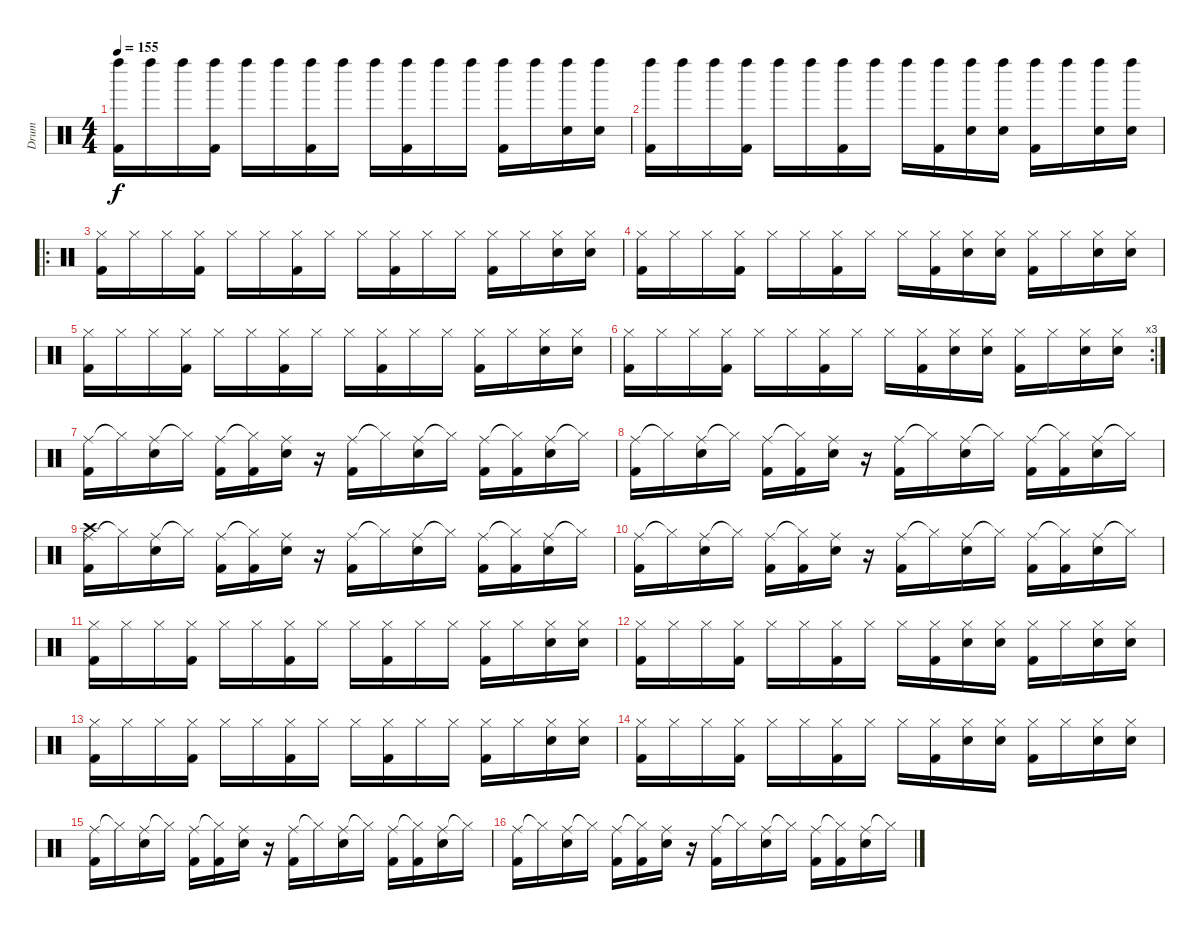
\track ("Drum" "Drum") {instrument percussion}
\staff {score}
\articulation defaults
\ts (4 4)
\tempo 155
\clef neutral
\ks c
("Left Maraca (hit)" "Kick (hit) 2").16{dy f} "Left Maraca (hit)".16 "Left Maraca (hit)".16 ("Left Maraca (hit)" "Kick (hit) 2").16 "Left Maraca (hit)".16 "Left Maraca (hit)".16 ("Left Maraca (hit)" "Kick (hit) 2").16 "Left Maraca (hit)".16 "Left Maraca (hit)".16 ("Left Maraca (hit)" "Kick (hit) 2").16 "Left Maraca (hit)".16 "Left Maraca (hit)".16 ("Left Maraca (hit)" "Kick (hit) 2").16 "Left Maraca (hit)".16 ("Left Maraca (hit)" "Snare (hit) 2").16 ("Left Maraca (hit)" "Snare (hit) 2").16 |
("Left Maraca (hit)" "Kick (hit) 2").16 "Left Maraca (hit)".16 "Left Maraca (hit)".16 ("Left Maraca (hit)" "Kick (hit) 2").16 "Left Maraca (hit)".16 "Left Maraca (hit)".16 ("Left Maraca (hit)" "Kick (hit) 2").16 "Left Maraca (hit)".16 "Left Maraca (hit)".16 ("Left Maraca (hit)" "Kick (hit) 2").16 ("Left Maraca (hit)" "Snare (hit) 2").16 ("Left Maraca (hit)" "Snare (hit) 2").16 ("Left Maraca (hit)" "Kick (hit) 2").16 "Left Maraca (hit)".16 ("Left Maraca (hit)" "Snare (hit) 2").16 ("Left Maraca (hit)" "Snare (hit) 2").16 |
\ro
("Hi-Hat (closed)" "Kick (hit) 2").16 "Hi-Hat (closed)".16 "Hi-Hat (closed)".16 ("Hi-Hat (closed)" "Kick (hit) 2").16 "Hi-Hat (closed)".16 "Hi-Hat (closed)".16 ("Hi-Hat (closed)" "Kick (hit) 2").16 "Hi-Hat (closed)".16 "Hi-Hat (closed)".16 ("Hi-Hat (closed)" "Kick (hit) 2").16 "Hi-Hat (closed)".16 "Hi-Hat (closed)".16 ("Hi-Hat (closed)" "Kick (hit) 2").16 "Hi-Hat (closed)".16 ("Hi-Hat (closed)" "Snare (hit) 2").16 ("Hi-Hat (closed)" "Snare (hit) 2").16 |
("Hi-Hat (closed)" "Kick (hit) 2").16 "Hi-Hat (closed)".16 "Hi-Hat (closed)".16 ("Hi-Hat (closed)" "Kick (hit) 2").16 "Hi-Hat (closed)".16 "Hi-Hat (closed)".16 ("Hi-Hat (closed)" "Kick (hit) 2").16 "Hi-Hat (closed)".16 "Hi-Hat (closed)".16 ("Hi-Hat (closed)" "Kick (hit) 2").16 ("Hi-Hat (closed)" "Snare (hit) 2").16 ("Hi-Hat (closed)" "Snare (hit) 2").16 ("Hi-Hat (closed)" "Kick (hit) 2").16 "Hi-Hat (closed)".16 ("Hi-Hat (closed)" "Snare (hit) 2").16 ("Hi-Hat (closed)" "Snare (hit) 2").16 |
("Hi-Hat (closed)" "Kick (hit) 2").16 "Hi-Hat (closed)".16 "Hi-Hat (closed)".16 ("Hi-Hat (closed)" "Kick (hit) 2").16 "Hi-Hat (closed)".16 "Hi-Hat (closed)".16 ("Hi-Hat (closed)" "Kick (hit) 2").16 "Hi-Hat (closed)".16 "Hi-Hat (closed)".16 ("Hi-Hat (closed)" "Kick (hit) 2").16 "Hi-Hat (closed)".16 "Hi-Hat (closed)".16 ("Hi-Hat (closed)" "Kick (hit) 2").16 "Hi-Hat (closed)".16 ("Hi-Hat (closed)" "Snare (hit) 2").16 ("Hi-Hat (closed)" "Snare (hit) 2").16 |
\rc 3
("Hi-Hat (closed)" "Kick (hit) 2").16 "Hi-Hat (closed)".16 "Hi-Hat (closed)".16 ("Hi-Hat (closed)" "Kick (hit) 2").16 "Hi-Hat (closed)".16 "Hi-Hat (closed)".16 ("Hi-Hat (closed)" "Kick (hit) 2").16 "Hi-Hat (closed)".16 "Hi-Hat (closed)".16 ("Hi-Hat (closed)" "Kick (hit) 2").16 ("Hi-Hat (closed)" "Snare (hit) 2").16 ("Hi-Hat (closed)" "Snare (hit) 2").16 ("Hi-Hat (closed)" "Kick (hit) 2").16 "Hi-Hat (closed)".16 ("Hi-Hat (closed)" "Snare (hit) 2").16 ("Hi-Hat (closed)" "Snare (hit) 2").16 |
("Ride (middle)" "Kick (hit) 2").16 "Hi-Hat (closed)"{t}.16 ("Ride (middle)" "Snare (hit) 2").16 "Hi-Hat (closed)"{t}.16 ("Ride (middle)" "Kick (hit) 2").16 ("Hi-Hat (closed)"{t} "Kick (hit) 2").16 ("Ride (middle)" "Snare (hit) 2").16 r.16 ("Ride (middle)" "Kick (hit) 2").16 "Hi-Hat (closed)"{t}.16 ("Ride (middle)" "Snare (hit) 2").16 "Hi-Hat (closed)"{t}.16 ("Ride (middle)" "Kick (hit) 2").16 ("Hi-Hat (closed)"{t} "Kick (hit) 2").16 ("Ride (middle)" "Snare (hit) 2").16 "Hi-Hat (closed)"{t}.16 |
("Ride (middle)" "Kick (hit) 2").16 "Hi-Hat (closed)"{t}.16 ("Ride (middle)" "Snare (hit) 2").16 "Hi-Hat (closed)"{t}.16 ("Ride (middle)" "Kick (hit) 2").16 ("Hi-Hat (closed)"{t} "Kick (hit) 2").16 ("Ride (middle)" "Snare (hit) 2").16 r.16 ("Ride (middle)" "Kick (hit) 2").16 "Hi-Hat (closed)"{t}.16 ("Ride (middle)" "Snare (hit) 2").16 "Hi-Hat (closed)"{t}.16 ("Ride (middle)" "Kick (hit) 2").16 ("Hi-Hat (closed)"{t} "Kick (hit) 2").16 ("Ride (middle)" "Snare (hit) 2").16 "Hi-Hat (closed)"{t}.16 |
("Ride (middle)" "Crash high (hit)" "Kick (hit) 2").16 "Hi-Hat (closed)"{t}.16 ("Ride (middle)" "Snare (hit) 2").16 "Hi-Hat (closed)"{t}.16 ("Ride (middle)" "Kick (hit) 2").16 ("Hi-Hat (closed)"{t} "Kick (hit) 2").16 ("Ride (middle)" "Snare (hit) 2").16 r.16 ("Ride (middle)" "Kick (hit) 2").16 "Hi-Hat (closed)"{t}.16 ("Ride (middle)" "Snare (hit) 2").16 "Hi-Hat (closed)"{t}.16 ("Ride (middle)" "Kick (hit) 2").16 ("Hi-Hat (closed)"{t} "Kick (hit) 2").16 ("Ride (middle)" "Snare (hit) 2").16 "Hi-Hat (closed)"{t}.16 |
("Ride (middle)" "Kick (hit) 2").16 "Hi-Hat (closed)"{t}.16 ("Ride (middle)" "Snare (hit) 2").16 "Hi-Hat (closed)"{t}.16 ("Ride (middle)" "Kick (hit) 2").16 ("Hi-Hat (closed)"{t} "Kick (hit) 2").16 ("Ride (middle)" "Snare (hit) 2").16 r.16 ("Ride (middle)" "Kick (hit) 2").16 "Hi-Hat (closed)"{t}.16 ("Ride (middle)" "Snare (hit) 2").16 "Hi-Hat (closed)"{t}.16 ("Ride (middle)" "Kick (hit) 2").16 ("Hi-Hat (closed)"{t} "Kick (hit) 2").16 ("Ride (middle)" "Snare (hit) 2").16 "Hi-Hat (closed)"{t}.16 |
("Hi-Hat (closed)" "Kick (hit) 2").16 "Hi-Hat (closed)".16 "Hi-Hat (closed)".16 ("Hi-Hat (closed)" "Kick (hit) 2").16 "Hi-Hat (closed)".16 "Hi-Hat (closed)".16 ("Hi-Hat (closed)" "Kick (hit) 2").16 "Hi-Hat (closed)".16 "Hi-Hat (closed)".16 ("Hi-Hat (closed)" "Kick (hit) 2").16 "Hi-Hat (closed)".16 "Hi-Hat (closed)".16 ("Hi-Hat (closed)" "Kick (hit) 2").16 "Hi-Hat (closed)".16 ("Hi-Hat (closed)" "Snare (hit) 2").16 ("Hi-Hat (closed)" "Snare (hit) 2").16 |
("Hi-Hat (closed)" "Kick (hit) 2").16 "Hi-Hat (closed)".16 "Hi-Hat (closed)".16 ("Hi-Hat (closed)" "Kick (hit) 2").16 "Hi-Hat (closed)".16 "Hi-Hat (closed)".16 ("Hi-Hat (closed)" "Kick (hit) 2").16 "Hi-Hat (closed)".16 "Hi-Hat (closed)".16 ("Hi-Hat (closed)" "Kick (hit) 2").16 ("Hi-Hat (closed)" "Snare (hit) 2").16 ("Hi-Hat (closed)" "Snare (hit) 2").16 ("Hi-Hat (closed)" "Kick (hit) 2").16 "Hi-Hat (closed)".16 ("Hi-Hat (closed)" "Snare (hit) 2").16 ("Hi-Hat (closed)" "Snare (hit) 2").16 |
("Hi-Hat (closed)" "Kick (hit) 2").16 "Hi-Hat (closed)".16 "Hi-Hat (closed)".16 ("Hi-Hat (closed)" "Kick (hit) 2").16 "Hi-Hat (closed)".16 "Hi-Hat (closed)".16 ("Hi-Hat (closed)" "Kick (hit) 2").16 "Hi-Hat (closed)".16 "Hi-Hat (closed)".16 ("Hi-Hat (closed)" "Kick (hit) 2").16 "Hi-Hat (closed)".16 "Hi-Hat (closed)".16 ("Hi-Hat (closed)" "Kick (hit) 2").16 "Hi-Hat (closed)".16 ("Hi-Hat (closed)" "Snare (hit) 2").16 ("Hi-Hat (closed)" "Snare (hit) 2").16 |
("Hi-Hat (closed)" "Kick (hit) 2").16 "Hi-Hat (closed)".16 "Hi-Hat (closed)".16 ("Hi-Hat (closed)" "Kick (hit) 2").16 "Hi-Hat (closed)".16 "Hi-Hat (closed)".16 ("Hi-Hat (closed)" "Kick (hit) 2").16 "Hi-Hat (closed)".16 "Hi-Hat (closed)".16 ("Hi-Hat (closed)" "Kick (hit) 2").16 ("Hi-Hat (closed)" "Snare (hit) 2").16 ("Hi-Hat (closed)" "Snare (hit) 2").16 ("Hi-Hat (closed)" "Kick (hit) 2").16 "Hi-Hat (closed)".16 ("Hi-Hat (closed)" "Snare (hit) 2").16 ("Hi-Hat (closed)" "Snare (hit) 2").16 |
("Ride (middle)" "Kick (hit) 2").16 "Hi-Hat (closed)"{t}.16 ("Ride (middle)" "Snare (hit) 2").16 "Hi-Hat (closed)"{t}.16 ("Ride (middle)" "Kick (hit) 2").16 ("Hi-Hat (closed)"{t} "Kick (hit) 2").16 ("Ride (middle)" "Snare (hit) 2").16 r.16 ("Ride (middle)" "Kick (hit) 2").16 "Hi-Hat (closed)"{t}.16 ("Ride (middle)" "Snare (hit) 2").16 "Hi-Hat (closed)"{t}.16 ("Ride (middle)" "Kick (hit) 2").16 ("Hi-Hat (closed)"{t} "Kick (hit) 2").16 ("Ride (middle)" "Snare (hit) 2").16 "Hi-Hat (closed)"{t}.16 |
("Ride (middle)" "Kick (hit) 2").16 "Hi-Hat (closed)"{t}.16 ("Ride (middle)" "Snare (hit) 2").16 "Hi-Hat (closed)"{t}.16 ("Ride (middle)" "Kick (hit) 2").16 ("Hi-Hat (closed)"{t} "Kick (hit) 2").16 ("Ride (middle)" "Snare (hit) 2").16 r.16 ("Ride (middle)" "Kick (hit) 2").16 "Hi-Hat (closed)"{t}.16 ("Ride (middle)" "Snare (hit) 2").16 "Hi-Hat (closed)"{t}.16 ("Ride (middle)" "Kick (hit) 2").16 ("Hi-Hat (closed)"{t} "Kick (hit) 2").16 ("Ride (middle)" "Snare (hit) 2").16 "Hi-Hat (closed)"{t}.16
